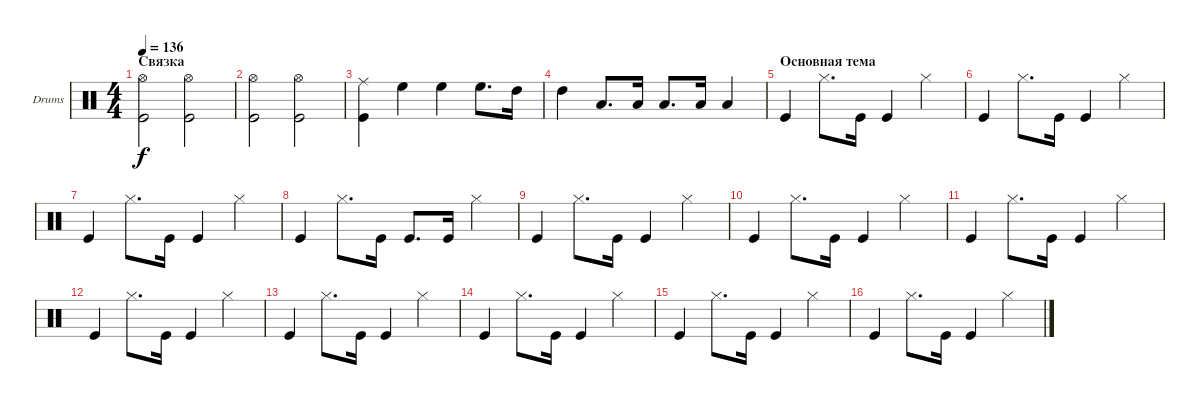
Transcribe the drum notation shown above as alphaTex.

\defaultSystemsLayout 4
\bracketExtendMode groupsimilarinstruments
\firstSystemTrackNameOrientation horizontal
\otherSystemsTrackNameOrientation horizontal
\track ("Drumkit" "Drums") {instrument percussion}
\staff {score}
\articulation defaults
\ts (4 4)
\section ("" "Связка")
\tempo 136
\clef neutral
\ks c
("Hi-Hat (open)" "Kick (hit)").2{dy f} ("Hi-Hat (open)" "Kick (hit)").2 |
("Hi-Hat (open)" "Kick (hit)").2 ("Hi-Hat (open)" "Kick (hit)").2 |
("Ride (middle)" "Kick (hit)").4 "High Floor Tom (hit)".4 "High Floor Tom (hit)".4 "High Floor Tom (hit)".8{d} "High Tom (hit)".16 |
"High Tom (hit)".4 "Low Tom (hit)".8{d} "Low Tom (hit)".16 "Low Tom (hit)".8{d} "Low Tom (hit)".16 "Low Tom (hit)".4 |
\section ("" "Основная тема")
"Kick (hit)".4 "Hi-Hat (closed)".8{d} "Kick (hit)".16 "Kick (hit)".4 "Hi-Hat (closed)".4 |
"Kick (hit)".4 "Hi-Hat (closed)".8{d} "Kick (hit)".16 "Kick (hit)".4 "Hi-Hat (closed)".4 |
"Kick (hit)".4 "Hi-Hat (closed)".8{d} "Kick (hit)".16 "Kick (hit)".4 "Hi-Hat (closed)".4 |
"Kick (hit)".4 "Hi-Hat (closed)".8{d} "Kick (hit)".16 "Kick (hit)".8{d} "Kick (hit)".16 "Hi-Hat (closed)".4 |
"Kick (hit)".4 "Hi-Hat (closed)".8{d} "Kick (hit)".16 "Kick (hit)".4 "Hi-Hat (closed)".4 |
"Kick (hit)".4 "Hi-Hat (closed)".8{d} "Kick (hit)".16 "Kick (hit)".4 "Hi-Hat (closed)".4 |
"Kick (hit)".4 "Hi-Hat (closed)".8{d} "Kick (hit)".16 "Kick (hit)".4 "Hi-Hat (closed)".4 |
"Kick (hit)".4 "Hi-Hat (closed)".8{d} "Kick (hit)".16 "Kick (hit)".4 "Hi-Hat (closed)".4 |
"Kick (hit)".4 "Hi-Hat (closed)".8{d} "Kick (hit)".16 "Kick (hit)".4 "Hi-Hat (closed)".4 |
"Kick (hit)".4 "Hi-Hat (closed)".8{d} "Kick (hit)".16 "Kick (hit)".4 "Hi-Hat (closed)".4 |
"Kick (hit)".4 "Hi-Hat (closed)".8{d} "Kick (hit)".16 "Kick (hit)".4 "Hi-Hat (closed)".4 |
"Kick (hit)".4 "Hi-Hat (closed)".8{d} "Kick (hit)".16 "Kick (hit)".4 "Hi-Hat (closed)".4
